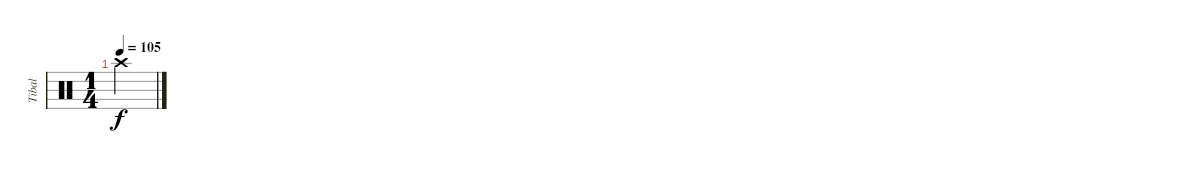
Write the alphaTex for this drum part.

\track ("Tibal" "Tibal") {instrument percussion}
\staff {score}
\articulation defaults
\ts (1 4)
\tempo 105
\clef neutral
\ks c "Crash high (hit)".4{dy f}
